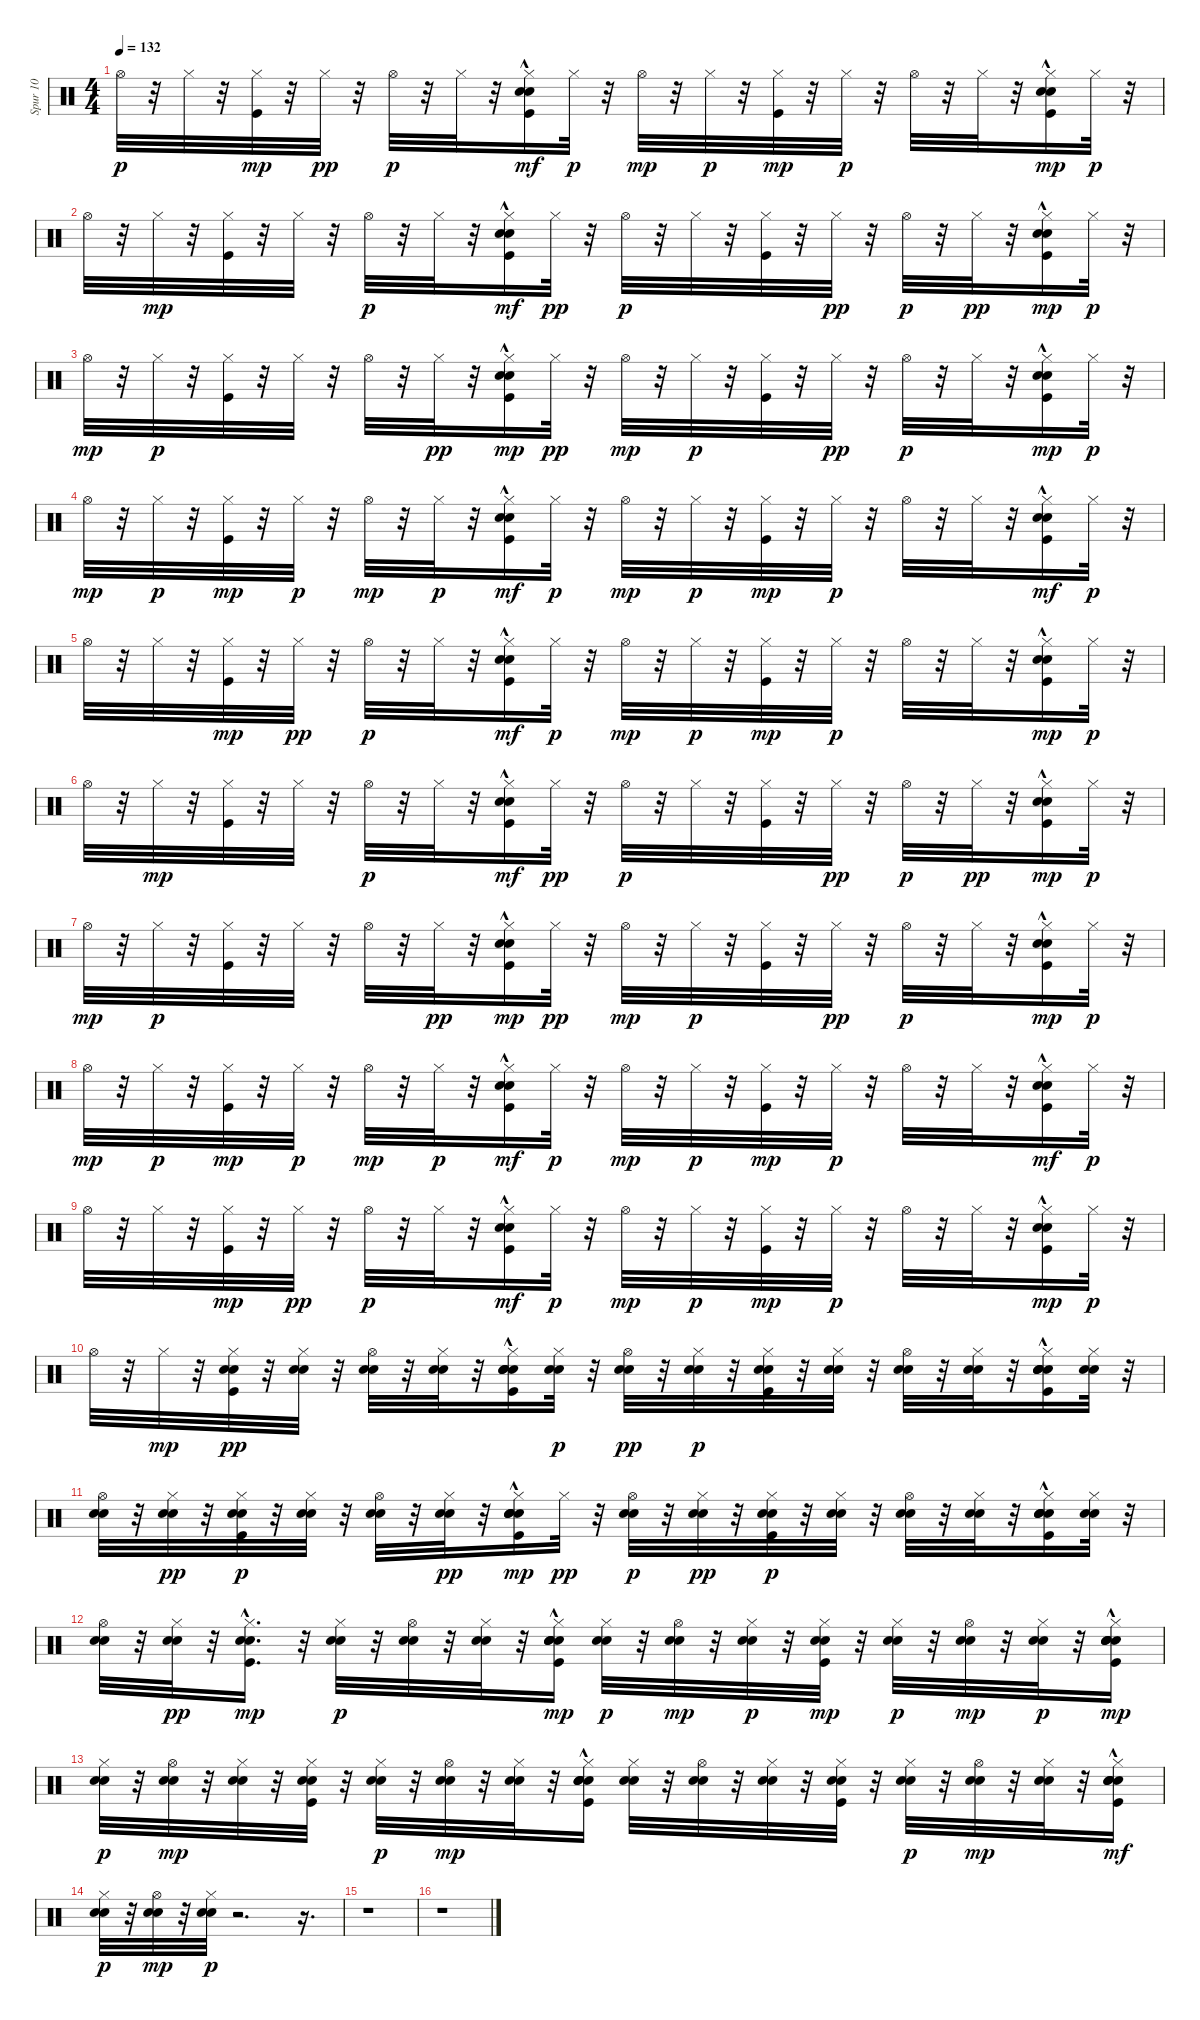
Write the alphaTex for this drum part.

\track ("Spur 10" "Spur 10") {instrument percussion}
\staff {score}
\articulation defaults
\ts (4 4)
\tempo 132
\clef neutral
\ks c "Hi-Hat (open)".32{dy p}
r.32 "Hi-Hat (closed)".32 r.32 ("Hi-Hat (closed)" "Kick (hit)").32{dy mp} r.32 "Hi-Hat (closed)".32{dy pp} r.32 "Hi-Hat (open)".32{dy p} r.32 "Hi-Hat (closed)".32 r.32 ("Hi-Hat (closed)" "Snare (hit) 2" "Kick (hit)" "Hand Clap (hit)"{hac}).16{dy mf} "Hi-Hat (closed)".32{dy p} r.32 "Hi-Hat (open)".32{dy mp} r.32 "Hi-Hat (closed)".32{dy p} r.32 ("Hi-Hat (closed)" "Kick (hit)").32{dy mp} r.32 "Hi-Hat (closed)".32{dy p} r.32 "Hi-Hat (open)".32 r.32 "Hi-Hat (closed)".32 r.32 ("Hi-Hat (closed)" "Kick (hit)" "Snare (hit) 2" "Hand Clap (hit)"{hac}).16{dy mp} "Hi-Hat (closed)".32{dy p} r.32 |
"Hi-Hat (open)".32 r.32 "Hi-Hat (closed)".32{dy mp} r.32 ("Kick (hit)" "Hi-Hat (closed)").32 r.32 "Hi-Hat (closed)".32 r.32 "Hi-Hat (open)".32{dy p} r.32 "Hi-Hat (closed)".32 r.32 ("Hi-Hat (closed)" "Snare (hit) 2" "Kick (hit)" "Hand Clap (hit)"{hac}).16{dy mf} "Hi-Hat (closed)".32{dy pp} r.32 "Hi-Hat (open)".32{dy p} r.32 "Hi-Hat (closed)".32 r.32 ("Hi-Hat (closed)" "Kick (hit)").32 r.32 "Hi-Hat (closed)".32{dy pp} r.32 "Hi-Hat (open)".32{dy p} r.32 "Hi-Hat (closed)".32{dy pp} r.32 ("Hi-Hat (closed)" "Kick (hit)" "Snare (hit) 2" "Hand Clap (hit)"{hac}).16{dy mp} "Hi-Hat (closed)".32{dy p} r.32 |
"Hi-Hat (open)".32{dy mp} r.32 "Hi-Hat (closed)".32{dy p} r.32 ("Hi-Hat (closed)" "Kick (hit)").32 r.32 "Hi-Hat (closed)".32 r.32 "Hi-Hat (open)".32 r.32 "Hi-Hat (closed)".32{dy pp} r.32 ("Hi-Hat (closed)" "Kick (hit)" "Snare (hit) 2" "Hand Clap (hit)"{hac}).16{dy mp} "Hi-Hat (closed)".32{dy pp} r.32 "Hi-Hat (open)".32{dy mp} r.32 "Hi-Hat (closed)".32{dy p} r.32 ("Hi-Hat (closed)" "Kick (hit)").32 r.32 "Hi-Hat (closed)".32{dy pp} r.32 "Hi-Hat (open)".32{dy p} r.32 "Hi-Hat (closed)".32 r.32 ("Hi-Hat (closed)" "Kick (hit)" "Snare (hit) 2" "Hand Clap (hit)"{hac}).16{dy mp} "Hi-Hat (closed)".32{dy p} r.32 |
"Hi-Hat (open)".32{dy mp} r.32 "Hi-Hat (closed)".32{dy p} r.32 ("Hi-Hat (closed)" "Kick (hit)").32{dy mp} r.32 "Hi-Hat (closed)".32{dy p} r.32 "Hi-Hat (open)".32{dy mp} r.32 "Hi-Hat (closed)".32{dy p} r.32 ("Hi-Hat (closed)" "Snare (hit) 2" "Kick (hit)" "Hand Clap (hit)"{hac}).16{dy mf} "Hi-Hat (closed)".32{dy p} r.32 "Hi-Hat (open)".32{dy mp} r.32 "Hi-Hat (closed)".32{dy p} r.32 ("Hi-Hat (closed)" "Kick (hit)").32{dy mp} r.32 "Hi-Hat (closed)".32{dy p} r.32 "Hi-Hat (open)".32 r.32 "Hi-Hat (closed)".32 r.32 ("Hi-Hat (closed)" "Snare (hit) 2" "Kick (hit)" "Hand Clap (hit)"{hac}).16{dy mf} "Hi-Hat (closed)".32{dy p} r.32 |
"Hi-Hat (open)".32 r.32 "Hi-Hat (closed)".32 r.32 ("Hi-Hat (closed)" "Kick (hit)").32{dy mp} r.32 "Hi-Hat (closed)".32{dy pp} r.32 "Hi-Hat (open)".32{dy p} r.32 "Hi-Hat (closed)".32 r.32 ("Hi-Hat (closed)" "Snare (hit) 2" "Kick (hit)" "Hand Clap (hit)"{hac}).16{dy mf} "Hi-Hat (closed)".32{dy p} r.32 "Hi-Hat (open)".32{dy mp} r.32 "Hi-Hat (closed)".32{dy p} r.32 ("Hi-Hat (closed)" "Kick (hit)").32{dy mp} r.32 "Hi-Hat (closed)".32{dy p} r.32 "Hi-Hat (open)".32 r.32 "Hi-Hat (closed)".32 r.32 ("Hi-Hat (closed)" "Kick (hit)" "Snare (hit) 2" "Hand Clap (hit)"{hac}).16{dy mp} "Hi-Hat (closed)".32{dy p} r.32 |
"Hi-Hat (open)".32 r.32 "Hi-Hat (closed)".32{dy mp} r.32 ("Kick (hit)" "Hi-Hat (closed)").32 r.32 "Hi-Hat (closed)".32 r.32 "Hi-Hat (open)".32{dy p} r.32 "Hi-Hat (closed)".32 r.32 ("Hi-Hat (closed)" "Snare (hit) 2" "Kick (hit)" "Hand Clap (hit)"{hac}).16{dy mf} "Hi-Hat (closed)".32{dy pp} r.32 "Hi-Hat (open)".32{dy p} r.32 "Hi-Hat (closed)".32 r.32 ("Hi-Hat (closed)" "Kick (hit)").32 r.32 "Hi-Hat (closed)".32{dy pp} r.32 "Hi-Hat (open)".32{dy p} r.32 "Hi-Hat (closed)".32{dy pp} r.32 ("Hi-Hat (closed)" "Kick (hit)" "Snare (hit) 2" "Hand Clap (hit)"{hac}).16{dy mp} "Hi-Hat (closed)".32{dy p} r.32 |
"Hi-Hat (open)".32{dy mp} r.32 "Hi-Hat (closed)".32{dy p} r.32 ("Hi-Hat (closed)" "Kick (hit)").32 r.32 "Hi-Hat (closed)".32 r.32 "Hi-Hat (open)".32 r.32 "Hi-Hat (closed)".32{dy pp} r.32 ("Hi-Hat (closed)" "Kick (hit)" "Snare (hit) 2" "Hand Clap (hit)"{hac}).16{dy mp} "Hi-Hat (closed)".32{dy pp} r.32 "Hi-Hat (open)".32{dy mp} r.32 "Hi-Hat (closed)".32{dy p} r.32 ("Hi-Hat (closed)" "Kick (hit)").32 r.32 "Hi-Hat (closed)".32{dy pp} r.32 "Hi-Hat (open)".32{dy p} r.32 "Hi-Hat (closed)".32 r.32 ("Hi-Hat (closed)" "Kick (hit)" "Snare (hit) 2" "Hand Clap (hit)"{hac}).16{dy mp} "Hi-Hat (closed)".32{dy p} r.32 |
"Hi-Hat (open)".32{dy mp} r.32 "Hi-Hat (closed)".32{dy p} r.32 ("Hi-Hat (closed)" "Kick (hit)").32{dy mp} r.32 "Hi-Hat (closed)".32{dy p} r.32 "Hi-Hat (open)".32{dy mp} r.32 "Hi-Hat (closed)".32{dy p} r.32 ("Hi-Hat (closed)" "Snare (hit) 2" "Kick (hit)" "Hand Clap (hit)"{hac}).16{dy mf} "Hi-Hat (closed)".32{dy p} r.32 "Hi-Hat (open)".32{dy mp} r.32 "Hi-Hat (closed)".32{dy p} r.32 ("Hi-Hat (closed)" "Kick (hit)").32{dy mp} r.32 "Hi-Hat (closed)".32{dy p} r.32 "Hi-Hat (open)".32 r.32 "Hi-Hat (closed)".32 r.32 ("Hi-Hat (closed)" "Snare (hit) 2" "Kick (hit)" "Hand Clap (hit)"{hac}).16{dy mf} "Hi-Hat (closed)".32{dy p} r.32 |
"Hi-Hat (open)".32 r.32 "Hi-Hat (closed)".32 r.32 ("Hi-Hat (closed)" "Kick (hit)").32{dy mp} r.32 "Hi-Hat (closed)".32{dy pp} r.32 "Hi-Hat (open)".32{dy p} r.32 "Hi-Hat (closed)".32 r.32 ("Hi-Hat (closed)" "Snare (hit) 2" "Kick (hit)" "Hand Clap (hit)"{hac}).16{dy mf} "Hi-Hat (closed)".32{dy p} r.32 "Hi-Hat (open)".32{dy mp} r.32 "Hi-Hat (closed)".32{dy p} r.32 ("Hi-Hat (closed)" "Kick (hit)").32{dy mp} r.32 "Hi-Hat (closed)".32{dy p} r.32 "Hi-Hat (open)".32 r.32 "Hi-Hat (closed)".32 r.32 ("Hi-Hat (closed)" "Kick (hit)" "Snare (hit) 2" "Hand Clap (hit)"{hac}).16{dy mp} "Hi-Hat (closed)".32{dy p} r.32 |
"Hi-Hat (open)".32 r.32 "Hi-Hat (closed)".32{dy mp} r.32 ("Kick (hit)" "Hi-Hat (closed)" "Electric Snare (hit)" "Electric Snare (hit)").32{dy pp} r.32 ("Hi-Hat (closed)" "Electric Snare (hit)" "Electric Snare (hit)").32 r.32 ("Hi-Hat (open)" "Electric Snare (hit)" "Electric Snare (hit)").32 r.32 ("Hi-Hat (closed)" "Electric Snare (hit)" "Electric Snare (hit)").32 r.32 ("Hi-Hat (closed)" "Snare (hit) 2" "Kick (hit)" "Electric Snare (hit)" "Electric Snare (hit)" "Hand Clap (hit)"{hac}).16 ("Hi-Hat (closed)" "Electric Snare (hit)" "Electric Snare (hit)").32{dy p} r.32 ("Hi-Hat (open)" "Electric Snare (hit)" "Electric Snare (hit)").32{dy pp} r.32 ("Hi-Hat (closed)" "Electric Snare (hit)" "Electric Snare (hit)").32{dy p} r.32 ("Hi-Hat (closed)" "Kick (hit)" "Electric Snare (hit)" "Electric Snare (hit)").32 r.32 ("Hi-Hat (closed)" "Electric Snare (hit)" "Electric Snare (hit)").32 r.32 ("Hi-Hat (open)" "Electric Snare (hit)" "Electric Snare (hit)").32 r.32 ("Hi-Hat (closed)" "Electric Snare (hit)" "Electric Snare (hit)").32 r.32 ("Hi-Hat (closed)" "Kick (hit)" "Snare (hit) 2" "Electric Snare (hit)" "Electric Snare (hit)" "Hand Clap (hit)"{hac}).16 ("Hi-Hat (closed)" "Electric Snare (hit)" "Electric Snare (hit)").32 r.32 |
("Hi-Hat (open)" "Electric Snare (hit)" "Electric Snare (hit)").32 r.32 ("Hi-Hat (closed)" "Electric Snare (hit)" "Electric Snare (hit)").32{dy pp} r.32 ("Hi-Hat (closed)" "Kick (hit)" "Electric Snare (hit)" "Electric Snare (hit)").32{dy p} r.32 ("Hi-Hat (closed)" "Electric Snare (hit)" "Electric Snare (hit)").32 r.32 ("Hi-Hat (open)" "Electric Snare (hit)" "Electric Snare (hit)").32 r.32 ("Hi-Hat (closed)" "Electric Snare (hit)" "Electric Snare (hit)").32{dy pp} r.32 ("Hi-Hat (closed)" "Kick (hit)" "Snare (hit) 2" "Electric Snare (hit)" "Electric Snare (hit)" "Hand Clap (hit)"{hac}).16{dy mp} "Hi-Hat (closed)".32{dy pp} r.32 ("Hi-Hat (open)" "Electric Snare (hit)" "Electric Snare (hit)").32{dy p} r.32 ("Hi-Hat (closed)" "Electric Snare (hit)" "Electric Snare (hit)").32{dy pp} r.32 ("Hi-Hat (closed)" "Kick (hit)" "Electric Snare (hit)" "Electric Snare (hit)").32{dy p} r.32 ("Hi-Hat (closed)" "Electric Snare (hit)" "Electric Snare (hit)").32 r.32 ("Hi-Hat (open)" "Electric Snare (hit)" "Electric Snare (hit)").32 r.32 ("Hi-Hat (closed)" "Electric Snare (hit)" "Electric Snare (hit)").32 r.32 ("Hi-Hat (closed)" "Kick (hit)" "Snare (hit) 2" "Electric Snare (hit)" "Electric Snare (hit)" "Hand Clap (hit)"{hac}).16 ("Hi-Hat (closed)" "Electric Snare (hit)" "Electric Snare (hit)").32 r.32 |
("Hi-Hat (open)" "Electric Snare (hit)" "Electric Snare (hit)").32 r.32 ("Hi-Hat (closed)" "Electric Snare (hit)" "Electric Snare (hit)").32{dy pp} r.32 ("Hi-Hat (closed)" "Kick (hit)"{hac} "Electric Snare (hit)"{hac} "Electric Snare (hit)"{hac}).16{d dy mp} r.32 ("Hi-Hat (closed)" "Electric Snare (hit)" "Electric Snare (hit)").32{dy p} r.32 ("Hi-Hat (open)" "Electric Snare (hit)" "Electric Snare (hit)").32 r.32 ("Hi-Hat (closed)" "Electric Snare (hit)" "Electric Snare (hit)").32 r.32 ("Hi-Hat (closed)" "Snare (hit) 2" "Kick (hit)" "Electric Snare (hit)" "Electric Snare (hit)" "Hand Clap (hit)"{hac}).16{dy mp} ("Hi-Hat (closed)" "Electric Snare (hit)" "Electric Snare (hit)").32{dy p} r.32 ("Hi-Hat (open)" "Electric Snare (hit)" "Electric Snare (hit)").32{dy mp} r.32 ("Hi-Hat (closed)" "Electric Snare (hit)" "Electric Snare (hit)").32{dy p} r.32 ("Hi-Hat (closed)" "Kick (hit)" "Electric Snare (hit)" "Electric Snare (hit)").32{dy mp} r.32 ("Hi-Hat (closed)" "Electric Snare (hit)" "Electric Snare (hit)").32{dy p} r.32 ("Hi-Hat (open)" "Electric Snare (hit)" "Electric Snare (hit)").32{dy mp} r.32 ("Hi-Hat (closed)" "Electric Snare (hit)" "Electric Snare (hit)").32{dy p} r.32 ("Hi-Hat (closed)" "Snare (hit) 2" "Kick (hit)" "Electric Snare (hit)" "Electric Snare (hit)" "Hand Clap (hit)"{hac}).16{dy mp} |
("Hi-Hat (closed)" "Electric Snare (hit)" "Electric Snare (hit)").32{dy p} r.32 ("Hi-Hat (open)" "Electric Snare (hit)" "Electric Snare (hit)").32{dy mp} r.32 ("Hi-Hat (closed)" "Electric Snare (hit)" "Electric Snare (hit)").32 r.32 ("Hi-Hat (closed)" "Kick (hit)" "Electric Snare (hit)" "Electric Snare (hit)").32 r.32 ("Hi-Hat (closed)" "Electric Snare (hit)" "Electric Snare (hit)").32{dy p} r.32 ("Hi-Hat (open)" "Electric Snare (hit)" "Electric Snare (hit)").32{dy mp} r.32 ("Hi-Hat (closed)" "Electric Snare (hit)" "Electric Snare (hit)").32 r.32 ("Hi-Hat (closed)" "Snare (hit) 2" "Kick (hit)" "Electric Snare (hit)" "Electric Snare (hit)" "Hand Clap (hit)"{hac}).16 ("Hi-Hat (closed)" "Electric Snare (hit)" "Electric Snare (hit)").32 r.32 ("Hi-Hat (open)" "Electric Snare (hit)" "Electric Snare (hit)").32 r.32 ("Hi-Hat (closed)" "Electric Snare (hit)" "Electric Snare (hit)").32 r.32 ("Hi-Hat (closed)" "Kick (hit)" "Electric Snare (hit)" "Electric Snare (hit)").32 r.32 ("Hi-Hat (closed)" "Electric Snare (hit)" "Electric Snare (hit)").32{dy p} r.32 ("Hi-Hat (open)" "Electric Snare (hit)" "Electric Snare (hit)").32{dy mp} r.32 ("Hi-Hat (closed)" "Electric Snare (hit)" "Electric Snare (hit)").32 r.32 ("Hi-Hat (closed)" "Kick (hit)" "Snare (hit) 2" "Electric Snare (hit)" "Electric Snare (hit)" "Hand Clap (hit)"{hac}).16{dy mf} |
("Hi-Hat (closed)" "Electric Snare (hit)" "Electric Snare (hit)").32{dy p} r.32 ("Hi-Hat (open)" "Electric Snare (hit)" "Electric Snare (hit)").32{dy mp} r.32 ("Hi-Hat (closed)" "Electric Snare (hit)" "Electric Snare (hit)").32{dy p} r.2{d} r.16{d} |
r.1 |
r.1
